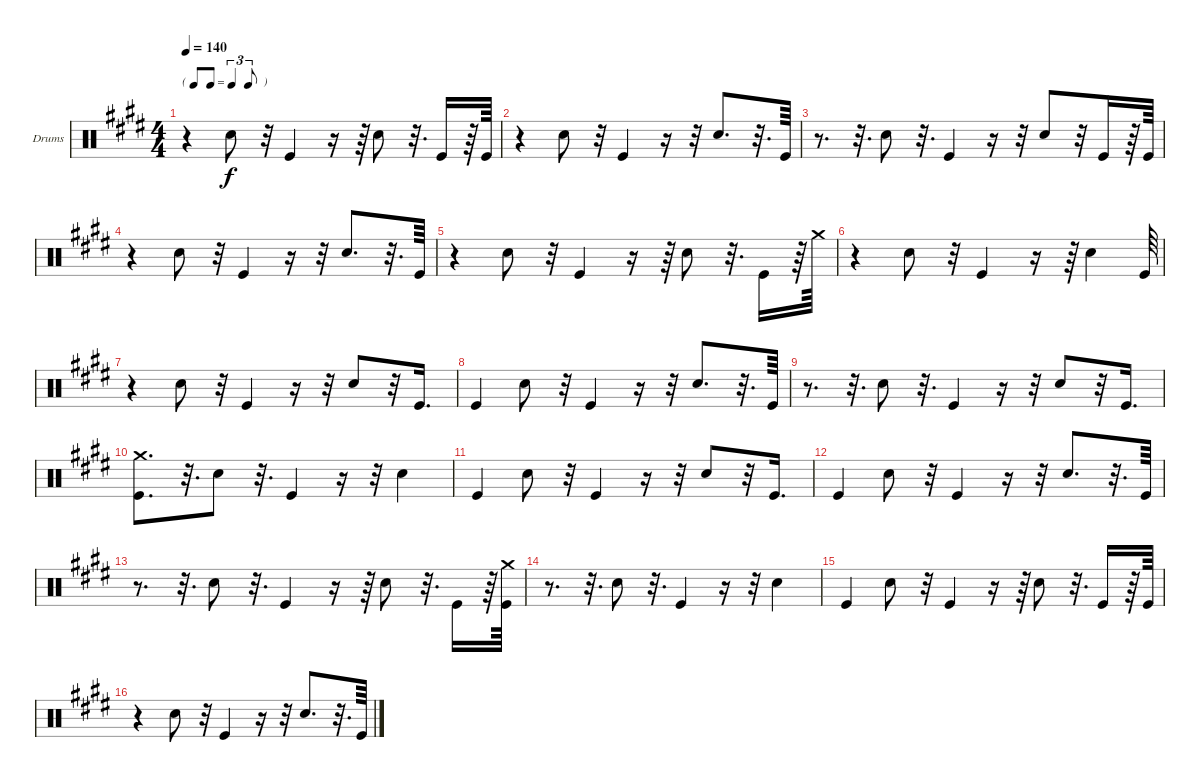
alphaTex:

\bracketExtendMode groupsimilarinstruments
\firstSystemTrackNameOrientation horizontal
\otherSystemsTrackNameOrientation horizontal
\track ("Drumkit" "Drums") {instrument percussion}
\staff {score}
\articulation defaults
\ts (4 4)
\tf triplet8th
\tempo 140
\clef neutral
\ks e
r.4{dy f} "Snare (hit) 2".8 r.32 "Kick (hit)".4 r.16 r.64 "Snare (hit) 2".8 r.32{d} "Kick (hit)".16 r.64 "Kick (hit)".64 |
r.4 "Snare (hit) 2".8 r.32 "Kick (hit)".4 r.16 r.32 "Snare (hit) 2".8{d} r.32{d} "Kick (hit)".64 |
r.8{d} r.32{d} "Snare (hit) 2".8 r.32{d} "Kick (hit)".4 r.16 r.32 "Snare (hit) 2".8 r.32 "Kick (hit)".16 r.64 "Kick (hit)".64 |
r.4 "Snare (hit) 2".8 r.32 "Kick (hit)".4 r.16 r.32 "Snare (hit) 2".8{d} r.32{d} "Kick (hit)".64 |
r.4 "Snare (hit) 2".8 r.32 "Kick (hit)".4 r.16 r.64 "Snare (hit) 2".8 r.32{d} "Kick (hit)".16 r.64 "Crash medium (hit)".64 |
r.4 "Snare (hit) 2".8 r.32 "Kick (hit)".4 r.16 r.64 "Snare (hit) 2".4 "Kick (hit)".64 |
r.4 "Snare (hit) 2".8 r.32 "Kick (hit)".4 r.16 r.32 "Snare (hit) 2".8 r.32 "Kick (hit)".16{d} |
"Kick (hit)".4 "Snare (hit) 2".8 r.32 "Kick (hit)".4 r.16 r.32 "Snare (hit) 2".8{d} r.32{d} "Kick (hit)".64 |
r.8{d} r.32{d} "Snare (hit) 2".8 r.32{d} "Kick (hit)".4 r.16 r.32 "Snare (hit) 2".8 r.32 "Kick (hit)".16{d} |
("Kick (hit)" "Crash medium (hit)").8{d} r.32{d} "Snare (hit) 2".8 r.32{d} "Kick (hit)".4 r.16 r.32 "Snare (hit) 2".4 |
"Kick (hit)".4 "Snare (hit) 2".8 r.32 "Kick (hit)".4 r.16 r.32 "Snare (hit) 2".8 r.32 "Kick (hit)".16{d} |
"Kick (hit)".4 "Snare (hit) 2".8 r.32 "Kick (hit)".4 r.16 r.32 "Snare (hit) 2".8{d} r.32{d} "Kick (hit)".64 |
r.8{d} r.32{d} "Snare (hit) 2".8 r.32{d} "Kick (hit)".4 r.16 r.64 "Snare (hit) 2".8 r.32{d} "Kick (hit)".16 r.64 ("Kick (hit)" "Crash medium (hit)").64 |
r.8{d} r.32{d} "Snare (hit) 2".8 r.32{d} "Kick (hit)".4 r.16 r.32 "Snare (hit) 2".4 |
"Kick (hit)".4 "Snare (hit) 2".8 r.32 "Kick (hit)".4 r.16 r.64 "Snare (hit) 2".8 r.32{d} "Kick (hit)".16 r.64 "Kick (hit)".64 |
r.4 "Snare (hit) 2".8 r.32 "Kick (hit)".4 r.16 r.32 "Snare (hit) 2".8{d} r.32{d} "Kick (hit)".64
